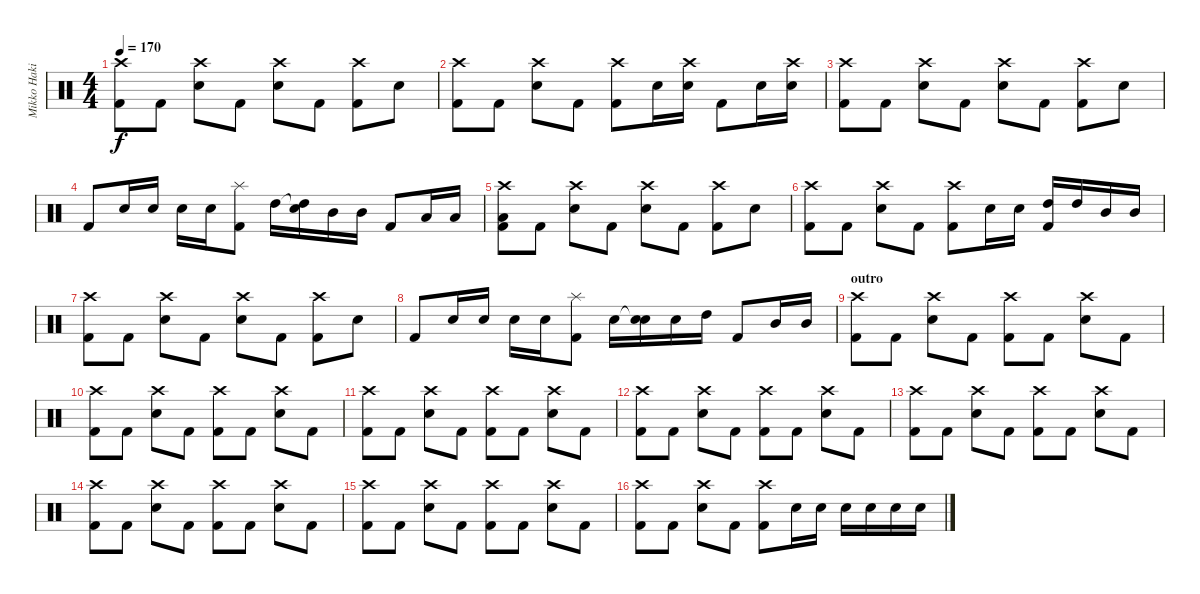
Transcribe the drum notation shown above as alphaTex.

\track ("Mikko Hakila - drums" "Mikko Haki") {instrument percussion}
\staff {score}
\articulation defaults
\ts (4 4)
\tempo 170
\clef neutral
\ks c
("Crash high (hit)" "Kick (hit) 2").8{dy f} "Kick (hit) 2".8 ("Crash high (hit)" "Snare (hit) 2").8 "Kick (hit) 2".8 ("Crash high (hit)" "Snare (hit) 2").8 "Kick (hit) 2".8 ("Crash high (hit)" "Kick (hit) 2").8 "Snare (hit) 2".8 |
("Crash high (hit)" "Kick (hit) 2").8 "Kick (hit) 2".8 ("Crash high (hit)" "Snare (hit) 2").8 "Kick (hit) 2".8 ("Crash high (hit)" "Kick (hit) 2").8 "Snare (hit) 2".16 ("Crash high (hit)" "Snare (hit) 2").16 "Kick (hit) 2".8 "Snare (hit) 2".16 ("Crash high (hit)" "Snare (hit) 2").16 |
("Crash high (hit)" "Kick (hit) 2").8 "Kick (hit) 2".8 ("Crash high (hit)" "Snare (hit) 2").8 "Kick (hit) 2".8 ("Crash high (hit)" "Snare (hit) 2").8 "Kick (hit) 2".8 ("Crash high (hit)" "Kick (hit) 2").8 "Snare (hit) 2".8 |
"Kick (hit) 2".8 "Snare (hit) 2".16 "Snare (hit) 2".16 "Snare (hit) 2".16 "Snare (hit) 2".16 ("Splash (hit)" "Kick (hit) 2").8 "High Tom (hit)".16 ("Snare (hit)"{t} "High Tom (hit)").16 "Mid Tom (hit)".16 "Mid Tom (hit)".16 "Kick (hit) 2".8 "Low Tom (hit)".16 "Low Tom (hit)".16 |
("Crash high (hit)" "Low Tom (hit)" "Kick (hit) 2").8 "Kick (hit) 2".8 ("Crash high (hit)" "Snare (hit) 2").8 "Kick (hit) 2".8 ("Crash high (hit)" "Snare (hit) 2").8 "Kick (hit) 2".8 ("Crash high (hit)" "Kick (hit) 2").8 "Snare (hit) 2".8 |
("Crash high (hit)" "Kick (hit) 2").8 "Kick (hit) 2".8 ("Crash high (hit)" "Snare (hit) 2").8 "Kick (hit) 2".8 ("Crash high (hit)" "Kick (hit) 2").8 "Snare (hit) 2".16 "Snare (hit) 2".16 ("High Tom (hit)" "Kick (hit) 2").16 "High Tom (hit)".16 "Mid Tom (hit)".16 "Mid Tom (hit)".16 |
("Crash high (hit)" "Kick (hit) 2").8 "Kick (hit) 2".8 ("Crash high (hit)" "Snare (hit) 2").8 "Kick (hit) 2".8 ("Crash high (hit)" "Snare (hit) 2").8 "Kick (hit) 2".8 ("Crash high (hit)" "Kick (hit) 2").8 "Snare (hit) 2".8 |
"Kick (hit) 2".8 "Snare (hit) 2".16 "Snare (hit) 2".16 "Snare (hit) 2".16 "Snare (hit) 2".16 ("Splash (hit)" "Kick (hit) 2").8 "Snare (hit) 2".16 ("Snare (hit)"{t} "Snare (hit) 2").16 "Snare (hit) 2".16 "High Tom (hit)".16 "Kick (hit) 2".8 "Mid Tom (hit)".16 "Mid Tom (hit)".16 |
\section ("" "outro")
("Crash high (hit)" "Kick (hit) 2").8 "Kick (hit) 2".8 ("Crash high (hit)" "Snare (hit) 2").8 "Kick (hit) 2".8 ("Crash high (hit)" "Kick (hit) 2").8 "Kick (hit) 2".8 ("Crash high (hit)" "Snare (hit) 2").8 "Kick (hit) 2".8 |
("Crash high (hit)" "Kick (hit) 2").8 "Kick (hit) 2".8 ("Crash high (hit)" "Snare (hit) 2").8 "Kick (hit) 2".8 ("Crash high (hit)" "Kick (hit) 2").8 "Kick (hit) 2".8 ("Crash high (hit)" "Snare (hit) 2").8 "Kick (hit) 2".8 |
("Crash high (hit)" "Kick (hit) 2").8 "Kick (hit) 2".8 ("Crash high (hit)" "Snare (hit) 2").8 "Kick (hit) 2".8 ("Crash high (hit)" "Kick (hit) 2").8 "Kick (hit) 2".8 ("Crash high (hit)" "Snare (hit) 2").8 "Kick (hit) 2".8 |
("Crash high (hit)" "Kick (hit) 2").8 "Kick (hit) 2".8 ("Crash high (hit)" "Snare (hit) 2").8 "Kick (hit) 2".8 ("Crash high (hit)" "Kick (hit) 2").8 "Kick (hit) 2".8 ("Crash high (hit)" "Snare (hit) 2").8 "Kick (hit) 2".8 |
("Crash high (hit)" "Kick (hit) 2").8 "Kick (hit) 2".8 ("Crash high (hit)" "Snare (hit) 2").8 "Kick (hit) 2".8 ("Crash high (hit)" "Kick (hit) 2").8 "Kick (hit) 2".8 ("Crash high (hit)" "Snare (hit) 2").8 "Kick (hit) 2".8 |
("Crash high (hit)" "Kick (hit) 2").8 "Kick (hit) 2".8 ("Crash high (hit)" "Snare (hit) 2").8 "Kick (hit) 2".8 ("Crash high (hit)" "Kick (hit) 2").8 "Kick (hit) 2".8 ("Crash high (hit)" "Snare (hit) 2").8 "Kick (hit) 2".8 |
("Crash high (hit)" "Kick (hit) 2").8 "Kick (hit) 2".8 ("Crash high (hit)" "Snare (hit) 2").8 "Kick (hit) 2".8 ("Crash high (hit)" "Kick (hit) 2").8 "Kick (hit) 2".8 ("Crash high (hit)" "Snare (hit) 2").8 "Kick (hit) 2".8 |
("Crash high (hit)" "Kick (hit) 2").8 "Kick (hit) 2".8 ("Crash high (hit)" "Snare (hit) 2").8 "Kick (hit) 2".8 ("Crash high (hit)" "Kick (hit) 2").8 "Snare (hit) 2".16 "Snare (hit) 2".16 "Snare (hit) 2".16 "Snare (hit) 2".16 "Snare (hit) 2".16 "Snare (hit) 2".16
